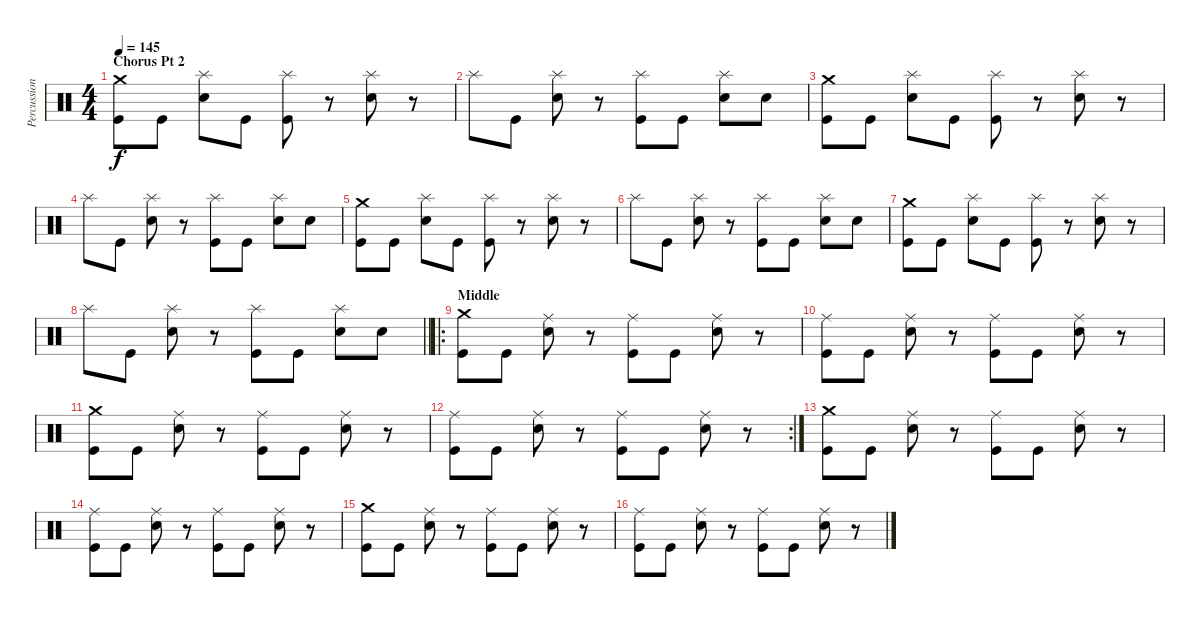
\track ("Percussion" "Percussion") {instrument percussion}
\staff {score}
\articulation defaults
\ts (4 4)
\section ("" "Chorus Pt 2")
\tempo 145
\clef neutral
\ks c
("Crash medium (hit)" "Kick (hit)").8{dy f} "Kick (hit)".8 ("Splash (hit)" "Snare (hit) 2").8 "Kick (hit)".8 ("Splash (hit)" "Kick (hit)").8 r.8 ("Splash (hit)" "Snare (hit) 2").8 r.8 |
"Splash (hit)".8 "Kick (hit)".8 ("Splash (hit)" "Snare (hit) 2").8 r.8 ("Splash (hit)" "Kick (hit)").8 "Kick (hit)".8 ("Splash (hit)" "Snare (hit) 2").8 "Snare (hit) 2".8 |
("Crash medium (hit)" "Kick (hit)").8 "Kick (hit)".8 ("Splash (hit)" "Snare (hit) 2").8 "Kick (hit)".8 ("Splash (hit)" "Kick (hit)").8 r.8 ("Splash (hit)" "Snare (hit) 2").8 r.8 |
"Splash (hit)".8 "Kick (hit)".8 ("Splash (hit)" "Snare (hit) 2").8 r.8 ("Splash (hit)" "Kick (hit)").8 "Kick (hit)".8 ("Splash (hit)" "Snare (hit) 2").8 "Snare (hit) 2".8 |
("Crash medium (hit)" "Kick (hit)").8 "Kick (hit)".8 ("Splash (hit)" "Snare (hit) 2").8 "Kick (hit)".8 ("Splash (hit)" "Kick (hit)").8 r.8 ("Splash (hit)" "Snare (hit) 2").8 r.8 |
"Splash (hit)".8 "Kick (hit)".8 ("Splash (hit)" "Snare (hit) 2").8 r.8 ("Splash (hit)" "Kick (hit)").8 "Kick (hit)".8 ("Splash (hit)" "Snare (hit) 2").8 "Snare (hit) 2".8 |
("Crash medium (hit)" "Kick (hit)").8 "Kick (hit)".8 ("Splash (hit)" "Snare (hit) 2").8 "Kick (hit)".8 ("Splash (hit)" "Kick (hit)").8 r.8 ("Splash (hit)" "Snare (hit) 2").8 r.8 |
\barLineRight lightlight "Splash (hit)".8 "Kick (hit)".8
("Splash (hit)" "Snare (hit) 2").8 r.8 ("Splash (hit)" "Kick (hit)").8 "Kick (hit)".8 ("Splash (hit)" "Snare (hit) 2").8 "Snare (hit) 2".8 |
\ro
\section ("" "Middle")
("Crash medium (hit)" "Kick (hit)").8 "Kick (hit)".8 ("Ride (middle)" "Snare (hit) 2").8 r.8 ("Ride (middle)" "Kick (hit)").8 "Kick (hit)".8 ("Ride (middle)" "Snare (hit) 2").8 r.8 |
("Ride (middle)" "Kick (hit)").8 "Kick (hit)".8 ("Ride (middle)" "Snare (hit) 2").8 r.8 ("Ride (middle)" "Kick (hit)").8 "Kick (hit)".8 ("Ride (middle)" "Snare (hit) 2").8 r.8 |
("Crash medium (hit)" "Kick (hit)").8 "Kick (hit)".8 ("Ride (middle)" "Snare (hit) 2").8 r.8 ("Ride (middle)" "Kick (hit)").8 "Kick (hit)".8 ("Ride (middle)" "Snare (hit) 2").8 r.8 |
\rc 2
("Ride (middle)" "Kick (hit)").8 "Kick (hit)".8 ("Ride (middle)" "Snare (hit) 2").8 r.8 ("Ride (middle)" "Kick (hit)").8 "Kick (hit)".8 ("Ride (middle)" "Snare (hit) 2").8 r.8 |
("Crash medium (hit)" "Kick (hit)").8 "Kick (hit)".8 ("Ride (middle)" "Snare (hit) 2").8 r.8 ("Ride (middle)" "Kick (hit)").8 "Kick (hit)".8 ("Ride (middle)" "Snare (hit) 2").8 r.8 |
("Ride (middle)" "Kick (hit)").8 "Kick (hit)".8 ("Ride (middle)" "Snare (hit) 2").8 r.8 ("Ride (middle)" "Kick (hit)").8 "Kick (hit)".8 ("Ride (middle)" "Snare (hit) 2").8 r.8 |
("Crash medium (hit)" "Kick (hit)").8 "Kick (hit)".8 ("Ride (middle)" "Snare (hit) 2").8 r.8 ("Ride (middle)" "Kick (hit)").8 "Kick (hit)".8 ("Ride (middle)" "Snare (hit) 2").8 r.8 |
("Ride (middle)" "Kick (hit)").8 "Kick (hit)".8 ("Ride (middle)" "Snare (hit) 2").8 r.8 ("Ride (middle)" "Kick (hit)").8 "Kick (hit)".8 ("Ride (middle)" "Snare (hit) 2").8 r.8
